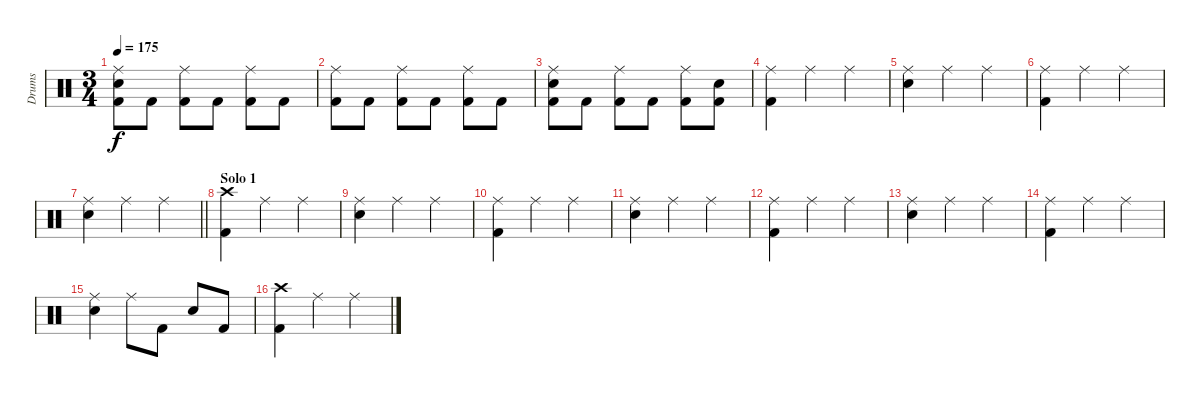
\track ("Drums" "Drums") {instrument percussion}
\staff {score}
\articulation defaults
\ts (3 4)
\tempo 175
\clef neutral
\ks c
("Ride (middle)" "Electric Snare (hit)" "Kick (hit) 2").8{dy f} "Kick (hit) 2".8 ("Ride (middle)" "Kick (hit) 2").8 "Kick (hit) 2".8 ("Ride (middle)" "Kick (hit) 2").8 "Kick (hit) 2".8 |
("Ride (middle)" "Kick (hit) 2").8 "Kick (hit) 2".8 ("Ride (middle)" "Kick (hit) 2").8 "Kick (hit) 2".8 ("Ride (middle)" "Kick (hit) 2").8 "Kick (hit) 2".8 |
("Ride (middle)" "Electric Snare (hit)" "Kick (hit) 2").8 "Kick (hit) 2".8 ("Ride (middle)" "Kick (hit) 2").8 "Kick (hit) 2".8 ("Ride (middle)" "Kick (hit) 2").8 ("Electric Snare (hit)" "Kick (hit) 2").8 |
("Ride (middle)" "Kick (hit) 2").4 "Ride (middle)".4 "Ride (middle)".4 |
("Ride (middle)" "Electric Snare (hit)").4 "Ride (middle)".4 "Ride (middle)".4 |
("Ride (middle)" "Kick (hit) 2").4 "Ride (middle)".4 "Ride (middle)".4 |
\barLineRight lightlight
("Ride (middle)" "Electric Snare (hit)").4 "Ride (middle)".4 "Ride (middle)".4 |
\section ("" "Solo 1")
("Crash high (hit)" "Kick (hit) 2").4 "Ride (middle)".4 "Ride (middle)".4 |
("Ride (middle)" "Electric Snare (hit)").4 "Ride (middle)".4 "Ride (middle)".4 |
("Ride (middle)" "Kick (hit) 2").4 "Ride (middle)".4 "Ride (middle)".4 |
("Ride (middle)" "Electric Snare (hit)").4 "Ride (middle)".4 "Ride (middle)".4 |
("Ride (middle)" "Kick (hit) 2").4 "Ride (middle)".4 "Ride (middle)".4 |
("Ride (middle)" "Electric Snare (hit)").4 "Ride (middle)".4 "Ride (middle)".4 |
("Ride (middle)" "Kick (hit) 2").4 "Ride (middle)".4 "Ride (middle)".4 |
("Ride (middle)" "Electric Snare (hit)").4 "Ride (middle)".8 "Kick (hit) 2".8 "Electric Snare (hit)".8 "Kick (hit) 2".8 |
("Crash high (hit)" "Kick (hit) 2").4 "Ride (middle)".4 "Ride (middle)".4
